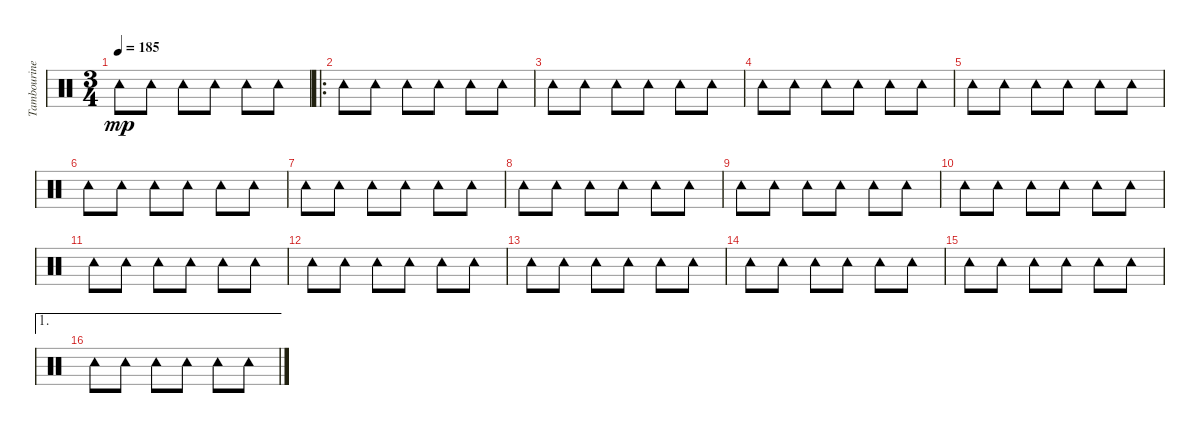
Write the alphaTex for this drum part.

\track ("Tambourine" "Tambourine") {instrument percussion}
\staff {score}
\articulation defaults
\ts (3 4)
\tempo 185
\clef neutral
\ks c "Tambourine (hit)".8{dy mp} "Tambourine (hit)".8 "Tambourine (hit)".8 "Tambourine (hit)".8 "Tambourine (hit)".8 "Tambourine (hit)".8
|
\ro "Tambourine (hit)".8 "Tambourine (hit)".8 "Tambourine (hit)".8 "Tambourine (hit)".8 "Tambourine (hit)".8 "Tambourine (hit)".8
|
"Tambourine (hit)".8 "Tambourine (hit)".8 "Tambourine (hit)".8 "Tambourine (hit)".8 "Tambourine (hit)".8 "Tambourine (hit)".8 |
"Tambourine (hit)".8 "Tambourine (hit)".8 "Tambourine (hit)".8 "Tambourine (hit)".8 "Tambourine (hit)".8 "Tambourine (hit)".8 |
"Tambourine (hit)".8 "Tambourine (hit)".8 "Tambourine (hit)".8 "Tambourine (hit)".8 "Tambourine (hit)".8 "Tambourine (hit)".8 |
"Tambourine (hit)".8 "Tambourine (hit)".8 "Tambourine (hit)".8 "Tambourine (hit)".8 "Tambourine (hit)".8 "Tambourine (hit)".8 |
"Tambourine (hit)".8 "Tambourine (hit)".8 "Tambourine (hit)".8 "Tambourine (hit)".8 "Tambourine (hit)".8 "Tambourine (hit)".8 |
"Tambourine (hit)".8 "Tambourine (hit)".8 "Tambourine (hit)".8 "Tambourine (hit)".8 "Tambourine (hit)".8 "Tambourine (hit)".8 |
"Tambourine (hit)".8 "Tambourine (hit)".8 "Tambourine (hit)".8 "Tambourine (hit)".8 "Tambourine (hit)".8 "Tambourine (hit)".8 |
"Tambourine (hit)".8 "Tambourine (hit)".8 "Tambourine (hit)".8 "Tambourine (hit)".8 "Tambourine (hit)".8 "Tambourine (hit)".8 |
"Tambourine (hit)".8 "Tambourine (hit)".8 "Tambourine (hit)".8 "Tambourine (hit)".8 "Tambourine (hit)".8 "Tambourine (hit)".8 |
"Tambourine (hit)".8 "Tambourine (hit)".8 "Tambourine (hit)".8 "Tambourine (hit)".8 "Tambourine (hit)".8 "Tambourine (hit)".8 |
"Tambourine (hit)".8 "Tambourine (hit)".8 "Tambourine (hit)".8 "Tambourine (hit)".8 "Tambourine (hit)".8 "Tambourine (hit)".8 |
"Tambourine (hit)".8 "Tambourine (hit)".8 "Tambourine (hit)".8 "Tambourine (hit)".8 "Tambourine (hit)".8 "Tambourine (hit)".8 |
"Tambourine (hit)".8 "Tambourine (hit)".8 "Tambourine (hit)".8 "Tambourine (hit)".8 "Tambourine (hit)".8 "Tambourine (hit)".8 |
\ae 1 "Tambourine (hit)".8 "Tambourine (hit)".8 "Tambourine (hit)".8 "Tambourine (hit)".8 "Tambourine (hit)".8 "Tambourine (hit)".8
